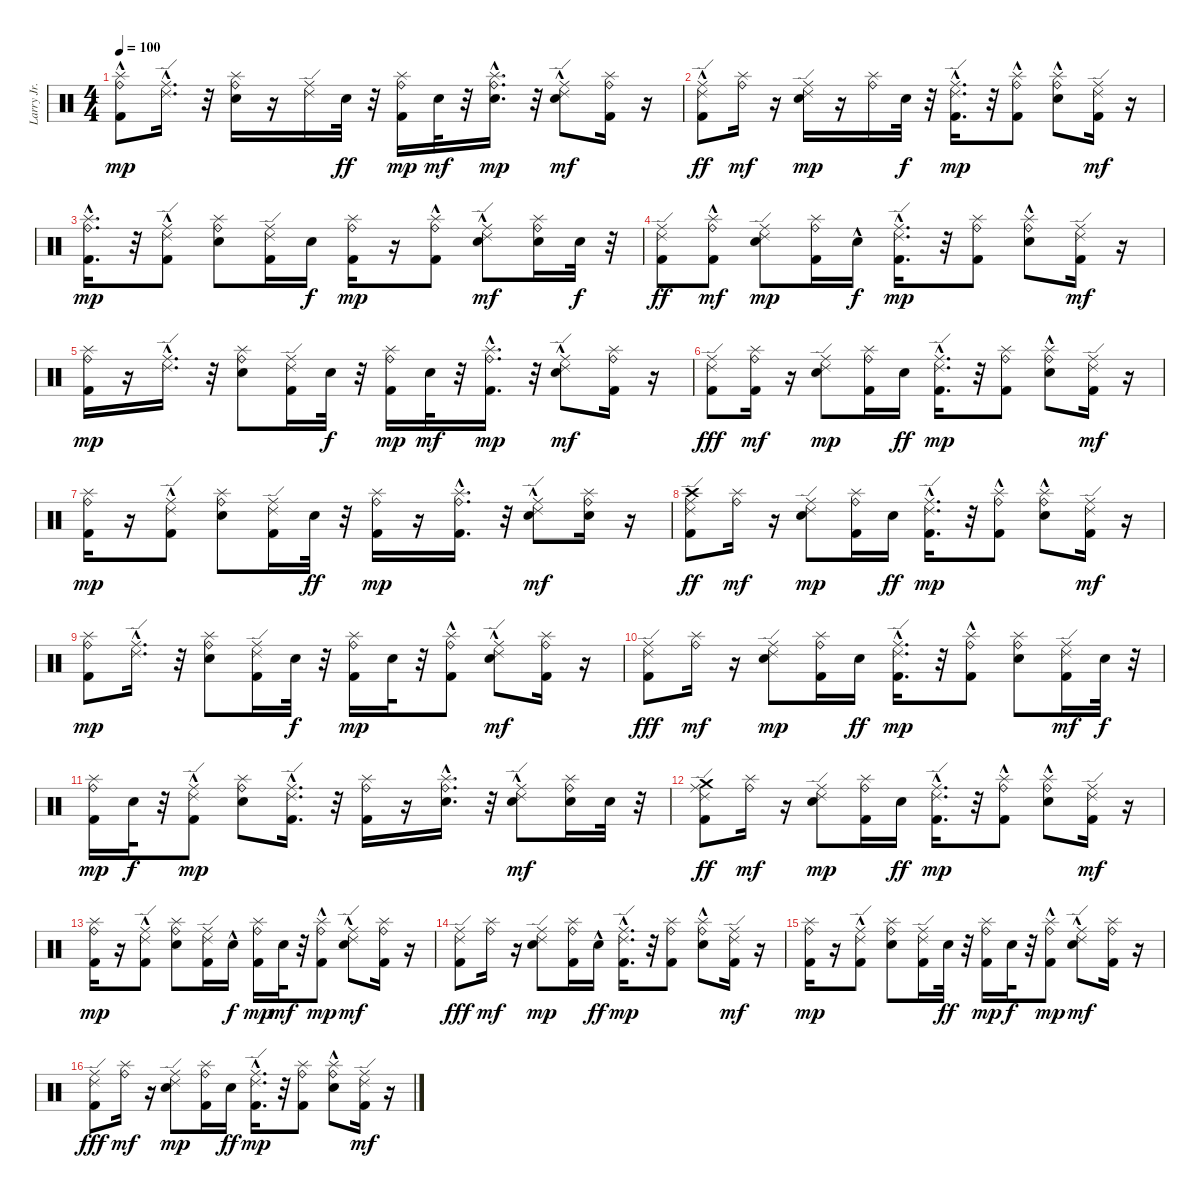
\track ("Larry Jr." "Larry Jr.") {instrument percussion}
\staff {score}
\articulation defaults
\ts (4 4)
\tempo 100
\clef neutral
\ks c
("Kick (hit) 2"{hac} "Ride (bell)" "Splash (hit)").8{dy mp} ("Ride (middle)" "Ride (edge) 2"{hac}).16{d} r.32 ("Electric Snare (hit)" "Ride (bell)" "Splash (hit)").16 r.16 ("Ride (middle)" "Ride (edge) 2").16 "Electric Snare (hit)".32{dy ff} r.32 ("Kick (hit) 2" "Ride (bell)" "Splash (hit)").16{dy mp} "Electric Snare (hit)".32{dy mf} r.32 ("Electric Snare (hit)" "Ride (bell)" "Splash (hit)"{hac}).16{d dy mp} r.32 ("Electric Snare (hit)" "Ride (middle)"{hac} "Ride (edge) 2").8{dy mf} ("Kick (hit) 2" "Ride (bell)" "Splash (hit)").16 r.16 |
("Kick (hit) 2"{hac} "Ride (middle)" "Ride (edge) 2").8{dy ff} ("Ride (bell)" "Splash (hit)").16{dy mf} r.16 ("Electric Snare (hit)" "Ride (middle)" "Ride (edge) 2").16{dy mp} r.16 ("Ride (bell)" "Splash (hit)").16 "Electric Snare (hit)".32{dy f} r.32 ("Kick (hit) 2" "Ride (middle)" "Ride (edge) 2"{hac}).16{d dy mp} r.32 ("Kick (hit) 2"{hac} "Ride (bell)" "Splash (hit)").8 ("Electric Snare (hit)"{hac} "Ride (bell)" "Splash (hit)").8 ("Kick (hit) 2" "Ride (middle)" "Ride (edge) 2").16{dy mf} r.16 |
("Kick (hit) 2"{hac} "Ride (bell)" "Splash (hit)").16{d dy mp} r.32 ("Kick (hit) 2"{hac} "Ride (middle)" "Ride (edge) 2"{hac}).8 ("Electric Snare (hit)" "Ride (bell)" "Splash (hit)").8 ("Kick (hit) 2" "Ride (middle)" "Ride (edge) 2").16 "Electric Snare (hit)".16{dy f} ("Kick (hit) 2" "Ride (bell)" "Splash (hit)").16{dy mp} r.16 ("Kick (hit) 2" "Ride (bell)" "Splash (hit)"{hac}).8 ("Electric Snare (hit)" "Ride (middle)"{hac} "Ride (edge) 2").8{dy mf} ("Electric Snare (hit)" "Ride (bell)" "Splash (hit)").16 "Electric Snare (hit)".32{dy f} r.32 |
("Kick (hit) 2" "Ride (middle)" "Ride (edge) 2").8{dy ff} ("Kick (hit) 2"{hac} "Ride (bell)" "Splash (hit)").8{dy mf} ("Electric Snare (hit)" "Ride (middle)" "Ride (edge) 2").8{dy mp} ("Kick (hit) 2" "Ride (bell)" "Splash (hit)").16 "Electric Snare (hit)"{hac}.16{dy f} ("Kick (hit) 2" "Ride (middle)" "Ride (edge) 2"{hac}).16{d dy mp} r.32 ("Kick (hit) 2" "Ride (bell)" "Splash (hit)").8 ("Electric Snare (hit)"{hac} "Ride (bell)" "Splash (hit)").8 ("Kick (hit) 2" "Ride (middle)" "Ride (edge) 2").16{dy mf} r.16 |
("Kick (hit) 2" "Ride (bell)" "Splash (hit)").16{dy mp} r.16 ("Ride (middle)" "Ride (edge) 2"{hac}).16{d} r.32 ("Electric Snare (hit)" "Ride (bell)" "Splash (hit)").8 ("Kick (hit) 2" "Ride (middle)" "Ride (edge) 2").16 "Electric Snare (hit)".32{dy f} r.32 ("Kick (hit) 2" "Ride (bell)" "Splash (hit)").16{dy mp} "Electric Snare (hit)".32{dy mf} r.32 ("Kick (hit) 2" "Ride (bell)" "Splash (hit)"{hac}).16{d dy mp} r.32 ("Electric Snare (hit)"{hac} "Ride (middle)"{hac} "Ride (edge) 2").8{dy mf} ("Kick (hit) 2" "Ride (bell)" "Splash (hit)").16 r.16 |
("Kick (hit) 2" "Ride (middle)" "Ride (edge) 2").8{dy fff} ("Kick (hit) 2" "Ride (bell)" "Splash (hit)").16{dy mf} r.16 ("Electric Snare (hit)" "Ride (middle)" "Ride (edge) 2").8{dy mp} ("Kick (hit) 2" "Ride (bell)" "Splash (hit)").16 "Electric Snare (hit)".16{dy ff} ("Kick (hit) 2" "Ride (middle)" "Ride (edge) 2"{hac}).16{d dy mp} r.32 ("Kick (hit) 2" "Ride (bell)" "Splash (hit)").8 ("Electric Snare (hit)"{hac} "Ride (bell)" "Splash (hit)").8 ("Kick (hit) 2" "Ride (middle)" "Ride (edge) 2").16{dy mf} r.16 |
("Kick (hit) 2" "Ride (bell)" "Splash (hit)").16{dy mp} r.16 ("Kick (hit) 2" "Ride (middle)" "Ride (edge) 2"{hac}).8 ("Electric Snare (hit)" "Ride (bell)" "Splash (hit)").8 ("Kick (hit) 2" "Ride (middle)" "Ride (edge) 2").16 "Electric Snare (hit)".32{dy ff} r.32 ("Kick (hit) 2" "Ride (bell)" "Splash (hit)").16{dy mp} r.16 ("Kick (hit) 2" "Ride (bell)" "Splash (hit)"{hac}).16{d} r.32 ("Electric Snare (hit)" "Ride (middle)"{hac} "Ride (edge) 2").8{dy mf} ("Electric Snare (hit)" "Ride (bell)" "Splash (hit)").16 r.16 |
("Kick (hit) 2" "Crash high (hit)" "Ride (middle)" "Ride (edge) 2").8{dy ff} ("Ride (bell)" "Splash (hit)").16{dy mf} r.16 ("Electric Snare (hit)" "Ride (middle)" "Ride (edge) 2").8{dy mp} ("Kick (hit) 2" "Ride (bell)" "Splash (hit)").16 "Electric Snare (hit)".16{dy ff} ("Kick (hit) 2" "Ride (middle)" "Ride (edge) 2"{hac}).16{d dy mp} r.32 ("Kick (hit) 2"{hac} "Ride (bell)" "Splash (hit)").8 ("Electric Snare (hit)"{hac} "Ride (bell)" "Splash (hit)").8 ("Kick (hit) 2" "Ride (middle)" "Ride (edge) 2").16{dy mf} r.16 |
("Kick (hit) 2" "Ride (bell)" "Splash (hit)").8{dy mp} ("Ride (middle)" "Ride (edge) 2"{hac}).16{d} r.32 ("Electric Snare (hit)" "Ride (bell)" "Splash (hit)").8 ("Kick (hit) 2" "Ride (middle)" "Ride (edge) 2").16 "Electric Snare (hit)".32{dy f} r.32 ("Kick (hit) 2" "Ride (bell)" "Splash (hit)").16{dy mp} "Electric Snare (hit)".32 r.32 ("Kick (hit) 2" "Ride (bell)" "Splash (hit)"{hac}).8 ("Electric Snare (hit)"{hac} "Ride (middle)"{hac} "Ride (edge) 2").8{dy mf} ("Kick (hit) 2" "Ride (bell)" "Splash (hit)").16 r.16 |
("Kick (hit) 2" "Ride (middle)" "Ride (edge) 2").8{dy fff} ("Ride (bell)" "Splash (hit)").16{dy mf} r.16 ("Electric Snare (hit)" "Ride (middle)" "Ride (edge) 2").8{dy mp} ("Kick (hit) 2" "Ride (bell)" "Splash (hit)").16 "Electric Snare (hit)".16{dy ff} ("Kick (hit) 2" "Ride (middle)" "Ride (edge) 2"{hac}).16{d dy mp} r.32 ("Kick (hit) 2"{hac} "Ride (bell)" "Splash (hit)").8 ("Electric Snare (hit)" "Ride (bell)" "Splash (hit)").8 ("Kick (hit) 2" "Ride (middle)" "Ride (edge) 2").16{dy mf} "Electric Snare (hit)".32{dy f} r.32 |
("Kick (hit) 2" "Ride (bell)" "Splash (hit)").16{dy mp} "Electric Snare (hit)".32{dy f} r.32 ("Kick (hit) 2" "Ride (middle)" "Ride (edge) 2"{hac}).8{dy mp} ("Electric Snare (hit)" "Ride (bell)" "Splash (hit)").8 ("Kick (hit) 2"{hac} "Ride (middle)" "Ride (edge) 2").16{d} r.32 ("Kick (hit) 2" "Ride (bell)" "Splash (hit)").16 r.16 ("Electric Snare (hit)" "Ride (bell)" "Splash (hit)"{hac}).16{d} r.32 ("Electric Snare (hit)" "Ride (middle)"{hac} "Ride (edge) 2").8{dy mf} ("Electric Snare (hit)" "Ride (bell)" "Splash (hit)").16 "Electric Snare (hit)".32 r.32 |
("Kick (hit) 2" "Ride (middle)" "Crash medium (hit)" "Ride (edge) 2").8{dy ff} ("Ride (bell)" "Splash (hit)").16{dy mf} r.16 ("Electric Snare (hit)" "Ride (middle)" "Ride (edge) 2").8{dy mp} ("Kick (hit) 2" "Ride (bell)" "Splash (hit)").16 "Electric Snare (hit)".16{dy ff} ("Kick (hit) 2" "Ride (middle)" "Ride (edge) 2"{hac}).16{d dy mp} r.32 ("Kick (hit) 2"{hac} "Ride (bell)" "Splash (hit)").8 ("Electric Snare (hit)"{hac} "Ride (bell)" "Splash (hit)").8 ("Kick (hit) 2" "Ride (middle)" "Ride (edge) 2").16{dy mf} r.16 |
("Kick (hit) 2" "Ride (bell)" "Splash (hit)").16{dy mp} r.16 ("Kick (hit) 2" "Ride (middle)" "Ride (edge) 2"{hac}).8 ("Electric Snare (hit)" "Ride (bell)" "Splash (hit)").8 ("Kick (hit) 2" "Ride (middle)" "Ride (edge) 2").16 "Electric Snare (hit)"{hac}.16{dy f} ("Kick (hit) 2" "Ride (bell)" "Splash (hit)").16{dy mp} "Electric Snare (hit)".32{dy mf} r.32 ("Kick (hit) 2" "Ride (bell)" "Splash (hit)"{hac}).8{dy mp} ("Electric Snare (hit)"{hac} "Ride (middle)"{hac} "Ride (edge) 2").8{dy mf} ("Kick (hit) 2" "Ride (bell)" "Splash (hit)").16 r.16 |
("Kick (hit) 2" "Ride (middle)" "Ride (edge) 2").8{dy fff} ("Ride (bell)" "Splash (hit)").16{dy mf} r.16 ("Electric Snare (hit)" "Ride (middle)" "Ride (edge) 2").8{dy mp} ("Kick (hit) 2" "Ride (bell)" "Splash (hit)").16 "Electric Snare (hit)"{hac}.16{dy ff} ("Kick (hit) 2" "Ride (middle)" "Ride (edge) 2"{hac}).16{d dy mp} r.32 ("Kick (hit) 2" "Ride (bell)" "Splash (hit)").8 ("Electric Snare (hit)"{hac} "Ride (bell)" "Splash (hit)").8 ("Kick (hit) 2" "Ride (middle)" "Ride (edge) 2").16{dy mf} r.16 |
("Kick (hit) 2" "Ride (bell)" "Splash (hit)").16{dy mp} r.16 ("Kick (hit) 2" "Ride (middle)" "Ride (edge) 2"{hac}).8 ("Electric Snare (hit)" "Ride (bell)" "Splash (hit)").8 ("Kick (hit) 2" "Ride (middle)" "Ride (edge) 2").16 "Electric Snare (hit)".32{dy ff} r.32 ("Kick (hit) 2" "Ride (bell)" "Splash (hit)").16{dy mp} "Electric Snare (hit)".32{dy f} r.32 ("Kick (hit) 2" "Ride (bell)" "Splash (hit)"{hac}).8{dy mp} ("Electric Snare (hit)"{hac} "Ride (middle)"{hac} "Ride (edge) 2").8{dy mf} ("Kick (hit) 2" "Ride (bell)" "Splash (hit)").16 r.16 |
("Kick (hit) 2" "Ride (middle)" "Ride (edge) 2").8{dy fff} ("Ride (bell)" "Splash (hit)").16{dy mf} r.16 ("Electric Snare (hit)" "Ride (middle)" "Ride (edge) 2").8{dy mp} ("Kick (hit) 2" "Ride (bell)" "Splash (hit)").16 "Electric Snare (hit)".16{dy ff} ("Kick (hit) 2" "Ride (middle)" "Ride (edge) 2"{hac}).16{d dy mp} r.32 ("Kick (hit) 2" "Ride (bell)" "Splash (hit)").8 ("Electric Snare (hit)"{hac} "Ride (bell)" "Splash (hit)").8 ("Kick (hit) 2" "Ride (middle)" "Ride (edge) 2").16{dy mf} r.16
